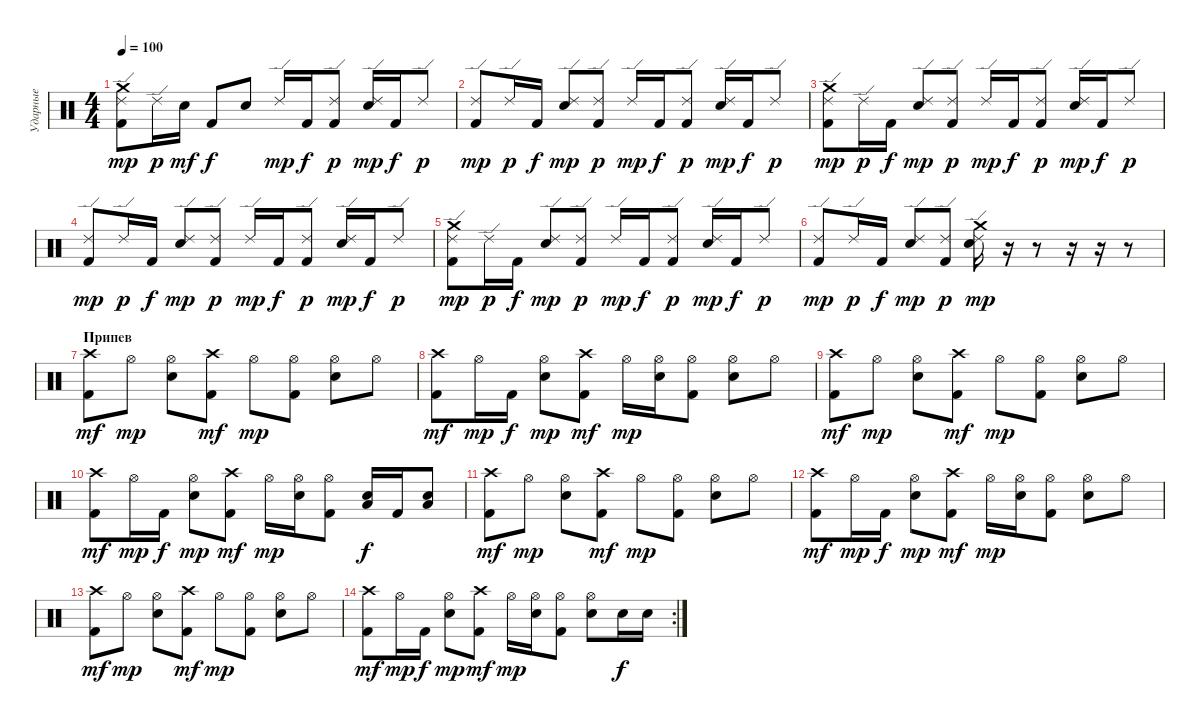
\track ("Ударные" "Ударные") {instrument percussion}
\staff {score}
\articulation defaults
\ts (4 4)
\tempo 100
\clef neutral
\ks c
("Crash medium (hit)" "Ride (edge) 2" "Kick (hit) 2").8{dy mp} "Ride (edge) 2".16{dy p} "Snare (hit) 2".16{dy mf} "Kick (hit) 2".8{dy f} "Snare (hit) 2".8 "Ride (edge) 2".16{dy mp} "Kick (hit) 2".16{dy f} ("Ride (edge) 2" "Kick (hit) 2").8{dy p} ("Ride (edge) 2" "Snare (hit) 2").16{dy mp} "Kick (hit) 2".16{dy f} "Ride (edge) 2".8{dy p} |
("Ride (edge) 2" "Kick (hit) 2").8{dy mp} "Ride (edge) 2".16{dy p} "Kick (hit) 2".16{dy f} ("Ride (edge) 2" "Snare (hit) 2").8{dy mp} ("Ride (edge) 2" "Kick (hit) 2").8{dy p} "Ride (edge) 2".16{dy mp} "Kick (hit) 2".16{dy f} ("Ride (edge) 2" "Kick (hit) 2").8{dy p} ("Ride (edge) 2" "Snare (hit) 2").16{dy mp} "Kick (hit) 2".16{dy f} "Ride (edge) 2".8{dy p} |
("Crash medium (hit)" "Ride (edge) 2" "Kick (hit) 2").8{dy mp} "Ride (edge) 2".16{dy p} "Kick (hit) 2".16{dy f} ("Ride (edge) 2" "Snare (hit) 2").8{dy mp} ("Ride (edge) 2" "Kick (hit) 2").8{dy p} "Ride (edge) 2".16{dy mp} "Kick (hit) 2".16{dy f} ("Ride (edge) 2" "Kick (hit) 2").8{dy p} ("Ride (edge) 2" "Snare (hit) 2").16{dy mp} "Kick (hit) 2".16{dy f} "Ride (edge) 2".8{dy p} |
("Ride (edge) 2" "Kick (hit) 2").8{dy mp} "Ride (edge) 2".16{dy p} "Kick (hit) 2".16{dy f} ("Ride (edge) 2" "Snare (hit) 2").8{dy mp} ("Ride (edge) 2" "Kick (hit) 2").8{dy p} "Ride (edge) 2".16{dy mp} "Kick (hit) 2".16{dy f} ("Ride (edge) 2" "Kick (hit) 2").8{dy p} ("Ride (edge) 2" "Snare (hit) 2").16{dy mp} "Kick (hit) 2".16{dy f} "Ride (edge) 2".8{dy p} |
("Crash medium (hit)" "Ride (edge) 2" "Kick (hit) 2").8{dy mp} "Ride (edge) 2".16{dy p} "Kick (hit) 2".16{dy f} ("Ride (edge) 2" "Snare (hit) 2").8{dy mp} ("Ride (edge) 2" "Kick (hit) 2").8{dy p} "Ride (edge) 2".16{dy mp} "Kick (hit) 2".16{dy f} ("Ride (edge) 2" "Kick (hit) 2").8{dy p} ("Ride (edge) 2" "Snare (hit) 2").16{dy mp} "Kick (hit) 2".16{dy f} "Ride (edge) 2".8{dy p} |
("Ride (edge) 2" "Kick (hit) 2").8{dy mp} "Ride (edge) 2".16{dy p} "Kick (hit) 2".16{dy f} ("Ride (edge) 2" "Snare (hit) 2").8{dy mp} ("Ride (edge) 2" "Kick (hit) 2").8{dy p} ("Crash medium (hit)" "Ride (edge) 2" "Snare (hit) 2").16{dy mp} r.16 r.8 r.16 r.16 r.8 |
\section ("" "Припев")
("Crash high (hit)" "Kick (hit) 2").8{dy mf} "Hi-Hat (open)".8{dy mp} ("Hi-Hat (open)" "Snare (hit) 2").8 ("Crash high (hit)" "Kick (hit) 2").8{dy mf} "Hi-Hat (open)".8{dy mp} ("Hi-Hat (open)" "Kick (hit) 2").8 ("Hi-Hat (open)" "Snare (hit) 2").8 "Hi-Hat (open)".8 |
("Crash high (hit)" "Kick (hit) 2").8{dy mf} "Hi-Hat (open)".16{dy mp} "Kick (hit) 2".16{dy f} ("Hi-Hat (open)" "Snare (hit) 2").8{dy mp} ("Crash high (hit)" "Kick (hit) 2").8{dy mf} "Hi-Hat (open)".16{dy mp} ("Hi-Hat (open)" "Snare (hit) 2").16 ("Hi-Hat (open)" "Kick (hit) 2").8 ("Hi-Hat (open)" "Snare (hit) 2").8 "Hi-Hat (open)".8 |
("Crash high (hit)" "Kick (hit) 2").8{dy mf} "Hi-Hat (open)".8{dy mp} ("Hi-Hat (open)" "Snare (hit) 2").8 ("Crash high (hit)" "Kick (hit) 2").8{dy mf} "Hi-Hat (open)".8{dy mp} ("Hi-Hat (open)" "Kick (hit) 2").8 ("Hi-Hat (open)" "Snare (hit) 2").8 "Hi-Hat (open)".8 |
("Crash high (hit)" "Kick (hit) 2").8{dy mf} "Hi-Hat (open)".16{dy mp} "Kick (hit) 2".16{dy f} ("Hi-Hat (open)" "Snare (hit) 2").8{dy mp} ("Crash high (hit)" "Kick (hit) 2").8{dy mf} "Hi-Hat (open)".16{dy mp} ("Hi-Hat (open)" "Snare (hit) 2").16 ("Hi-Hat (open)" "Kick (hit) 2").8 ("Low Tom (hit)" "Snare (hit) 2").16{dy f} "Kick (hit) 2".16 ("Low Tom (hit)" "Snare (hit) 2").8 |
("Crash high (hit)" "Kick (hit) 2").8{dy mf} "Hi-Hat (open)".8{dy mp} ("Hi-Hat (open)" "Snare (hit) 2").8 ("Crash high (hit)" "Kick (hit) 2").8{dy mf} "Hi-Hat (open)".8{dy mp} ("Hi-Hat (open)" "Kick (hit) 2").8 ("Hi-Hat (open)" "Snare (hit) 2").8 "Hi-Hat (open)".8 |
("Crash high (hit)" "Kick (hit) 2").8{dy mf} "Hi-Hat (open)".16{dy mp} "Kick (hit) 2".16{dy f} ("Hi-Hat (open)" "Snare (hit) 2").8{dy mp} ("Crash high (hit)" "Kick (hit) 2").8{dy mf} "Hi-Hat (open)".16{dy mp} ("Hi-Hat (open)" "Snare (hit) 2").16 ("Hi-Hat (open)" "Kick (hit) 2").8 ("Hi-Hat (open)" "Snare (hit) 2").8 "Hi-Hat (open)".8 |
("Crash high (hit)" "Kick (hit) 2").8{dy mf} "Hi-Hat (open)".8{dy mp} ("Hi-Hat (open)" "Snare (hit) 2").8 ("Crash high (hit)" "Kick (hit) 2").8{dy mf} "Hi-Hat (open)".8{dy mp} ("Hi-Hat (open)" "Kick (hit) 2").8 ("Hi-Hat (open)" "Snare (hit) 2").8 "Hi-Hat (open)".8 |
\rc 2
("Crash high (hit)" "Kick (hit) 2").8{dy mf} "Hi-Hat (open)".16{dy mp} "Kick (hit) 2".16{dy f} ("Hi-Hat (open)" "Snare (hit) 2").8{dy mp} ("Crash high (hit)" "Kick (hit) 2").8{dy mf} "Hi-Hat (open)".16{dy mp} ("Hi-Hat (open)" "Snare (hit) 2").16 ("Hi-Hat (open)" "Kick (hit) 2").8 ("Hi-Hat (open)" "Snare (hit) 2").8 "Snare (hit) 2".16{dy f} "Snare (hit) 2".16
